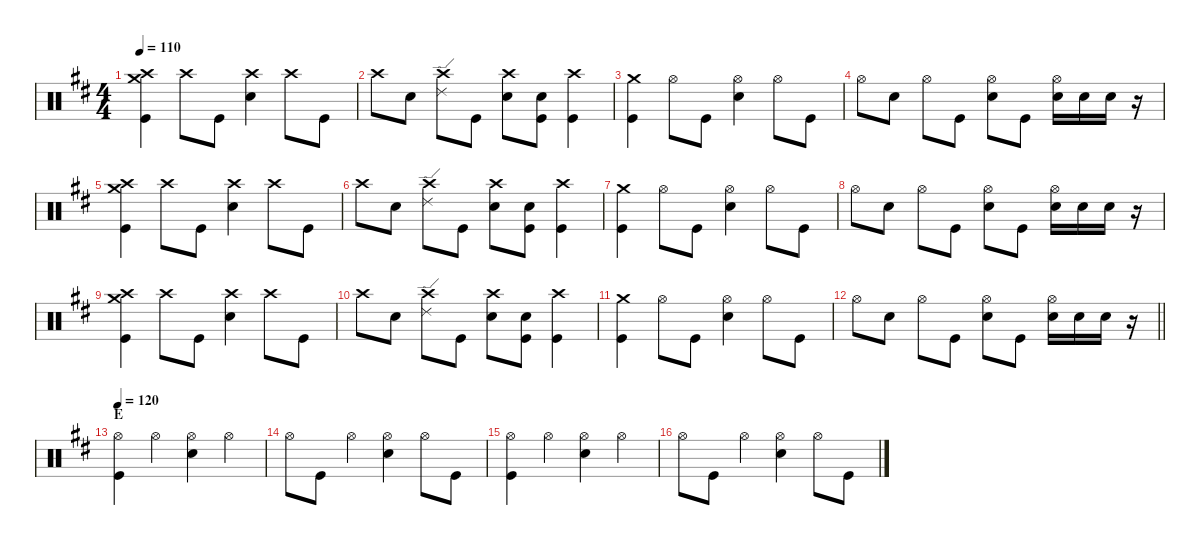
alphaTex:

\defaultSystemsLayout 4
\hideDynamics
\bracketExtendMode nobrackets
\singleTrackTrackNamePolicy hidden
\multiTrackTrackNamePolicy hidden
\firstSystemTrackNameMode fullname
\firstSystemTrackNameOrientation horizontal
\otherSystemsTrackNameOrientation horizontal
\track ("Aaron Harris" "drm.") {defaultSystemsLayout 4 instrument percussion}
\staff {score}
\articulation defaults
\ts (4 4)
\tempo 110
\clef neutral
\ks bminor
("Crash high (hit)"{acc forcenatural} "Crash medium (hit)"{acc forcenatural} "Kick (hit)"{acc forcenatural}).4{dy f beam Down} "Crash high (hit)"{acc forcenatural}.8{beam Down} "Kick (hit)"{acc forcenatural}.8{beam Down} ("Crash high (hit)"{acc forcenatural} "Snare (hit) 2"{acc forcenatural}).4{beam Down} "Crash high (hit)"{acc forcenatural}.8{beam Down} "Kick (hit)"{acc forcenatural}.8{beam Down} |
"Crash high (hit)"{acc forcenatural}.8{beam Down} "Snare (hit) 2"{acc forcenatural}.8{beam Down} ("Crash high (hit)"{acc forcenatural} "Ride (edge) 2"{acc forcenatural}).8{beam Down} "Kick (hit)"{acc forcenatural}.8{beam Down} ("Crash high (hit)"{acc forcenatural} "Snare (hit) 2"{acc forcenatural}).8{beam Down} ("Snare (hit) 2"{acc forcenatural} "Kick (hit)"{acc forcenatural}).8{beam Down} ("Crash high (hit)"{acc forcenatural} "Kick (hit)"{acc forcenatural}).4{beam Down} |
("Crash medium (hit)"{acc forcenatural} "Kick (hit)"{acc forcenatural}).4{beam Down} "Hi-Hat (open)"{acc forcenatural}.8{beam Down} "Kick (hit)"{acc forcenatural}.8{beam Down} ("Hi-Hat (open)"{acc forcenatural} "Snare (hit) 2"{acc forcenatural}).4{beam Down} "Hi-Hat (open)"{acc forcenatural}.8{beam Down} "Kick (hit)"{acc forcenatural}.8{beam Down} |
"Hi-Hat (open)"{acc forcenatural}.8{beam Down} "Snare (hit) 2"{acc forcenatural}.8{beam Down} "Hi-Hat (open)"{acc forcenatural}.8{beam Down} "Kick (hit)"{acc forcenatural}.8{beam Down} ("Hi-Hat (open)"{acc forcenatural} "Snare (hit) 2"{acc forcenatural}).8{beam Down} "Kick (hit)"{acc forcenatural}.8{beam Down} ("Hi-Hat (open)"{acc forcenatural} "Snare (hit) 2"{acc forcenatural}).16{beam Down} "Snare (hit) 2"{acc forcenatural}.16{beam Down} "Snare (hit) 2"{acc forcenatural}.16{beam Down} r.16{beam Down} |
("Crash high (hit)"{acc forcenatural} "Crash medium (hit)"{acc forcenatural} "Kick (hit)"{acc forcenatural}).4{beam Down} "Crash high (hit)"{acc forcenatural}.8{beam Down} "Kick (hit)"{acc forcenatural}.8{beam Down} ("Crash high (hit)"{acc forcenatural} "Snare (hit) 2"{acc forcenatural}).4{beam Down} "Crash high (hit)"{acc forcenatural}.8{beam Down} "Kick (hit)"{acc forcenatural}.8{beam Down} |
"Crash high (hit)"{acc forcenatural}.8{beam Down} "Snare (hit) 2"{acc forcenatural}.8{beam Down} ("Crash high (hit)"{acc forcenatural} "Ride (edge) 2"{acc forcenatural}).8{beam Down} "Kick (hit)"{acc forcenatural}.8{beam Down} ("Crash high (hit)"{acc forcenatural} "Snare (hit) 2"{acc forcenatural}).8{beam Down} ("Snare (hit) 2"{acc forcenatural} "Kick (hit)"{acc forcenatural}).8{beam Down} ("Crash high (hit)"{acc forcenatural} "Kick (hit)"{acc forcenatural}).4{beam Down} |
("Crash medium (hit)"{acc forcenatural} "Kick (hit)"{acc forcenatural}).4{beam Down} "Hi-Hat (open)"{acc forcenatural}.8{beam Down} "Kick (hit)"{acc forcenatural}.8{beam Down} ("Hi-Hat (open)"{acc forcenatural} "Snare (hit) 2"{acc forcenatural}).4{beam Down} "Hi-Hat (open)"{acc forcenatural}.8{beam Down} "Kick (hit)"{acc forcenatural}.8{beam Down} |
"Hi-Hat (open)"{acc forcenatural}.8{beam Down} "Snare (hit) 2"{acc forcenatural}.8{beam Down} "Hi-Hat (open)"{acc forcenatural}.8{beam Down} "Kick (hit)"{acc forcenatural}.8{beam Down} ("Hi-Hat (open)"{acc forcenatural} "Snare (hit) 2"{acc forcenatural}).8{beam Down} "Kick (hit)"{acc forcenatural}.8{beam Down} ("Hi-Hat (open)"{acc forcenatural} "Snare (hit) 2"{acc forcenatural}).16{beam Down} "Snare (hit) 2"{acc forcenatural}.16{beam Down} "Snare (hit) 2"{acc forcenatural}.16{beam Down} r.16{beam Down} |
("Crash high (hit)"{acc forcenatural} "Crash medium (hit)"{acc forcenatural} "Kick (hit)"{acc forcenatural}).4{beam Down} "Crash high (hit)"{acc forcenatural}.8{beam Down} "Kick (hit)"{acc forcenatural}.8{beam Down} ("Crash high (hit)"{acc forcenatural} "Snare (hit) 2"{acc forcenatural}).4{beam Down} "Crash high (hit)"{acc forcenatural}.8{beam Down} "Kick (hit)"{acc forcenatural}.8{beam Down} |
"Crash high (hit)"{acc forcenatural}.8{beam Down} "Snare (hit) 2"{acc forcenatural}.8{beam Down} ("Crash high (hit)"{acc forcenatural} "Ride (edge) 2"{acc forcenatural}).8{beam Down} "Kick (hit)"{acc forcenatural}.8{beam Down} ("Crash high (hit)"{acc forcenatural} "Snare (hit) 2"{acc forcenatural}).8{beam Down} ("Snare (hit) 2"{acc forcenatural} "Kick (hit)"{acc forcenatural}).8{beam Down} ("Crash high (hit)"{acc forcenatural} "Kick (hit)"{acc forcenatural}).4{beam Down} |
("Crash medium (hit)"{acc forcenatural} "Kick (hit)"{acc forcenatural}).4{beam Down} "Hi-Hat (open)"{acc forcenatural}.8{beam Down} "Kick (hit)"{acc forcenatural}.8{beam Down} ("Hi-Hat (open)"{acc forcenatural} "Snare (hit) 2"{acc forcenatural}).4{beam Down} "Hi-Hat (open)"{acc forcenatural}.8{beam Down} "Kick (hit)"{acc forcenatural}.8{beam Down} |
\barLineRight lightlight "Hi-Hat (open)"{acc forcenatural}.8{beam Down} "Snare (hit) 2"{acc forcenatural}.8{beam Down} "Hi-Hat (open)"{acc forcenatural}.8{beam Down} "Kick (hit)"{acc forcenatural}.8{beam Down}
("Hi-Hat (open)"{acc forcenatural} "Snare (hit) 2"{acc forcenatural}).8{beam Down} "Kick (hit)"{acc forcenatural}.8{beam Down} ("Hi-Hat (open)"{acc forcenatural} "Snare (hit) 2"{acc forcenatural}).16{beam Down} "Snare (hit) 2"{acc forcenatural}.16{beam Down} "Snare (hit) 2"{acc forcenatural}.16{beam Down} r.16{beam Down} |
\section ("" "E")
\tempo 120
("Hi-Hat (open)"{acc forcenatural} "Kick (hit)"{acc forcenatural}).4{beam Down} "Hi-Hat (open)"{acc forcenatural}.4{beam Down} ("Hi-Hat (open)"{acc forcenatural} "Snare (hit) 2"{acc forcenatural}).4{beam Down} "Hi-Hat (open)"{acc forcenatural}.4{beam Down} |
"Hi-Hat (open)"{acc forcenatural}.8{beam Down} "Kick (hit)"{acc forcenatural}.8{beam Down} "Hi-Hat (open)"{acc forcenatural}.4{beam Down} ("Hi-Hat (open)"{acc forcenatural} "Snare (hit) 2"{acc forcenatural}).4{beam Down} "Hi-Hat (open)"{acc forcenatural}.8{beam Down} "Kick (hit)"{acc forcenatural}.8{beam Down} |
("Hi-Hat (open)"{acc forcenatural} "Kick (hit)"{acc forcenatural}).4{beam Down} "Hi-Hat (open)"{acc forcenatural}.4{beam Down} ("Hi-Hat (open)"{acc forcenatural} "Snare (hit) 2"{acc forcenatural}).4{beam Down} "Hi-Hat (open)"{acc forcenatural}.4{beam Down} |
"Hi-Hat (open)"{acc forcenatural}.8{beam Down} "Kick (hit)"{acc forcenatural}.8{beam Down} "Hi-Hat (open)"{acc forcenatural}.4{beam Down} ("Hi-Hat (open)"{acc forcenatural} "Snare (hit) 2"{acc forcenatural}).4{beam Down} "Hi-Hat (open)"{acc forcenatural}.8{beam Down} "Kick (hit)"{acc forcenatural}.8{beam Down}
